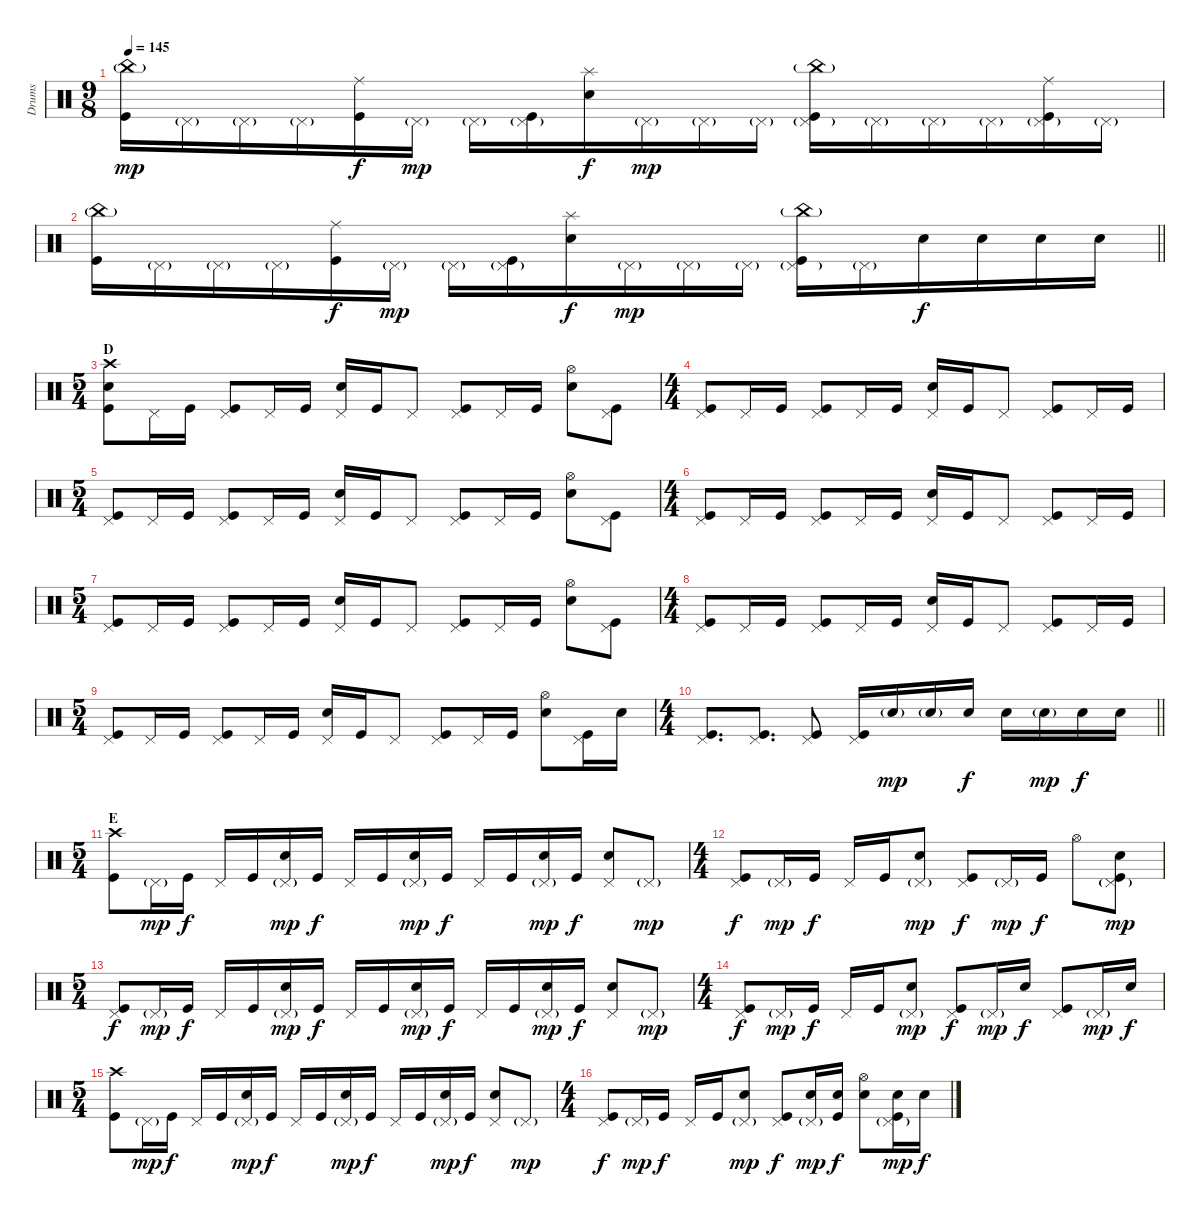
\track ("Drums" "Drums") {instrument percussion}
\staff {score}
\articulation defaults
\ts (9 8)
\tempo 145
\clef neutral
\ks c
("China (hit)"{g} "Kick (hit)").16{dy mp} "Pedal Hi-Hat (hit)"{g}.16 "Pedal Hi-Hat (hit)"{g}.16 "Pedal Hi-Hat (hit)"{g}.16 ("Ride (middle)" "Kick (hit)").16{dy f} "Pedal Hi-Hat (hit)"{g}.16{dy mp} "Pedal Hi-Hat (hit)"{g}.16 ("Pedal Hi-Hat (hit)"{g} "Kick (hit)").16 ("Splash (hit)" "Electric Snare (hit)").16{dy f} "Pedal Hi-Hat (hit)"{g}.16{dy mp} "Pedal Hi-Hat (hit)"{g}.16 "Pedal Hi-Hat (hit)"{g}.16 ("China (hit)"{g} "Pedal Hi-Hat (hit)"{g} "Kick (hit)").16 "Pedal Hi-Hat (hit)"{g}.16 "Pedal Hi-Hat (hit)"{g}.16 "Pedal Hi-Hat (hit)"{g}.16 ("Ride (middle)" "Pedal Hi-Hat (hit)"{g} "Kick (hit)").16 "Pedal Hi-Hat (hit)"{g}.16 |
\barLineRight lightlight
("China (hit)"{g} "Kick (hit)").16 "Pedal Hi-Hat (hit)"{g}.16 "Pedal Hi-Hat (hit)"{g}.16 "Pedal Hi-Hat (hit)"{g}.16 ("Ride (middle)" "Kick (hit)").16{dy f} "Pedal Hi-Hat (hit)"{g}.16{dy mp} "Pedal Hi-Hat (hit)"{g}.16 ("Pedal Hi-Hat (hit)"{g} "Kick (hit)").16 ("Splash (hit)" "Electric Snare (hit)").16{dy f} "Pedal Hi-Hat (hit)"{g}.16{dy mp} "Pedal Hi-Hat (hit)"{g}.16 "Pedal Hi-Hat (hit)"{g}.16 ("China (hit)"{g} "Pedal Hi-Hat (hit)"{g} "Kick (hit)").16 "Pedal Hi-Hat (hit)"{g}.16 "Electric Snare (hit)".16{dy f} "Electric Snare (hit)".16 "Electric Snare (hit)".16 "Electric Snare (hit)".16 |
\ts (5 4)
\section ("" "D")
("Crash high (hit)" "Electric Snare (hit)" "Kick (hit)").8 "Pedal Hi-Hat (hit)".16 "Kick (hit)".16 ("Pedal Hi-Hat (hit)" "Kick (hit)").8 "Pedal Hi-Hat (hit)".16 "Kick (hit)".16 ("Pedal Hi-Hat (hit)" "Electric Snare (hit)").16 "Kick (hit)".16 "Pedal Hi-Hat (hit)".8 ("Pedal Hi-Hat (hit)" "Kick (hit)").8 "Pedal Hi-Hat (hit)".16 "Kick (hit)".16 ("Hi-Hat (open)" "Electric Snare (hit)").8 ("Pedal Hi-Hat (hit)" "Kick (hit)").8 |
\ts (4 4)
("Pedal Hi-Hat (hit)" "Kick (hit)").8 "Pedal Hi-Hat (hit)".16 "Kick (hit)".16 ("Pedal Hi-Hat (hit)" "Kick (hit)").8 "Pedal Hi-Hat (hit)".16 "Kick (hit)".16 ("Pedal Hi-Hat (hit)" "Electric Snare (hit)").16 "Kick (hit)".16 "Pedal Hi-Hat (hit)".8 ("Pedal Hi-Hat (hit)" "Kick (hit)").8 "Pedal Hi-Hat (hit)".16 "Kick (hit)".16 |
\ts (5 4)
("Pedal Hi-Hat (hit)" "Kick (hit)").8 "Pedal Hi-Hat (hit)".16 "Kick (hit)".16 ("Pedal Hi-Hat (hit)" "Kick (hit)").8 "Pedal Hi-Hat (hit)".16 "Kick (hit)".16 ("Pedal Hi-Hat (hit)" "Electric Snare (hit)").16 "Kick (hit)".16 "Pedal Hi-Hat (hit)".8 ("Pedal Hi-Hat (hit)" "Kick (hit)").8 "Pedal Hi-Hat (hit)".16 "Kick (hit)".16 ("Hi-Hat (open)" "Electric Snare (hit)").8 ("Pedal Hi-Hat (hit)" "Kick (hit)").8 |
\ts (4 4)
("Pedal Hi-Hat (hit)" "Kick (hit)").8 "Pedal Hi-Hat (hit)".16 "Kick (hit)".16 ("Pedal Hi-Hat (hit)" "Kick (hit)").8 "Pedal Hi-Hat (hit)".16 "Kick (hit)".16 ("Pedal Hi-Hat (hit)" "Electric Snare (hit)").16 "Kick (hit)".16 "Pedal Hi-Hat (hit)".8 ("Pedal Hi-Hat (hit)" "Kick (hit)").8 "Pedal Hi-Hat (hit)".16 "Kick (hit)".16 |
\ts (5 4)
("Pedal Hi-Hat (hit)" "Kick (hit)").8 "Pedal Hi-Hat (hit)".16 "Kick (hit)".16 ("Pedal Hi-Hat (hit)" "Kick (hit)").8 "Pedal Hi-Hat (hit)".16 "Kick (hit)".16 ("Pedal Hi-Hat (hit)" "Electric Snare (hit)").16 "Kick (hit)".16 "Pedal Hi-Hat (hit)".8 ("Pedal Hi-Hat (hit)" "Kick (hit)").8 "Pedal Hi-Hat (hit)".16 "Kick (hit)".16 ("Hi-Hat (open)" "Electric Snare (hit)").8 ("Pedal Hi-Hat (hit)" "Kick (hit)").8 |
\ts (4 4)
("Pedal Hi-Hat (hit)" "Kick (hit)").8 "Pedal Hi-Hat (hit)".16 "Kick (hit)".16 ("Pedal Hi-Hat (hit)" "Kick (hit)").8 "Pedal Hi-Hat (hit)".16 "Kick (hit)".16 ("Pedal Hi-Hat (hit)" "Electric Snare (hit)").16 "Kick (hit)".16 "Pedal Hi-Hat (hit)".8 ("Pedal Hi-Hat (hit)" "Kick (hit)").8 "Pedal Hi-Hat (hit)".16 "Kick (hit)".16 |
\ts (5 4)
("Pedal Hi-Hat (hit)" "Kick (hit)").8 "Pedal Hi-Hat (hit)".16 "Kick (hit)".16 ("Pedal Hi-Hat (hit)" "Kick (hit)").8 "Pedal Hi-Hat (hit)".16 "Kick (hit)".16 ("Pedal Hi-Hat (hit)" "Electric Snare (hit)").16 "Kick (hit)".16 "Pedal Hi-Hat (hit)".8 ("Pedal Hi-Hat (hit)" "Kick (hit)").8 "Pedal Hi-Hat (hit)".16 "Kick (hit)".16 ("Hi-Hat (open)" "Electric Snare (hit)").8 ("Pedal Hi-Hat (hit)" "Kick (hit)").16 "Electric Snare (hit)".16 |
\ts (4 4)
\barLineRight lightlight
("Pedal Hi-Hat (hit)" "Kick (hit)").8{d} ("Pedal Hi-Hat (hit)" "Kick (hit)").8{d} ("Pedal Hi-Hat (hit)" "Kick (hit)").8 ("Pedal Hi-Hat (hit)" "Kick (hit)").16 "Electric Snare (hit)"{g}.16{dy mp} "Electric Snare (hit)"{g}.16 "Electric Snare (hit)".16{dy f} "Electric Snare (hit)".16 "Electric Snare (hit)"{g}.16{dy mp} "Electric Snare (hit)".16{dy f} "Electric Snare (hit)".16 |
\ts (5 4)
\section ("" "E")
("Crash high (hit)" "Kick (hit)").8 "Pedal Hi-Hat (hit)"{g}.16{dy mp} "Kick (hit)".16{dy f} "Pedal Hi-Hat (hit)".16 "Kick (hit)".16 ("Pedal Hi-Hat (hit)"{g} "Electric Snare (hit)").16{dy mp} "Kick (hit)".16{dy f} "Pedal Hi-Hat (hit)".16 "Kick (hit)".16 ("Pedal Hi-Hat (hit)"{g} "Electric Snare (hit)").16{dy mp} "Kick (hit)".16{dy f} "Pedal Hi-Hat (hit)".16 "Kick (hit)".16 ("Pedal Hi-Hat (hit)"{g} "Electric Snare (hit)").16{dy mp} "Kick (hit)".16{dy f} ("Pedal Hi-Hat (hit)" "Electric Snare (hit)").8 "Pedal Hi-Hat (hit)"{g}.8{dy mp} |
\ts (4 4)
("Pedal Hi-Hat (hit)" "Kick (hit)").8{dy f} "Pedal Hi-Hat (hit)"{g}.16{dy mp} "Kick (hit)".16{dy f} "Pedal Hi-Hat (hit)".16 "Kick (hit)".16 ("Pedal Hi-Hat (hit)"{g} "Electric Snare (hit)").8{dy mp} ("Pedal Hi-Hat (hit)" "Kick (hit)").8{dy f} "Pedal Hi-Hat (hit)"{g}.16{dy mp} "Kick (hit)".16{dy f} "Hi-Hat (open)".8 ("Pedal Hi-Hat (hit)"{g} "Electric Snare (hit)" "Kick (hit)").8{dy mp} |
\ts (5 4)
("Pedal Hi-Hat (hit)" "Kick (hit)").8{dy f} "Pedal Hi-Hat (hit)"{g}.16{dy mp} "Kick (hit)".16{dy f} "Pedal Hi-Hat (hit)".16 "Kick (hit)".16 ("Pedal Hi-Hat (hit)"{g} "Electric Snare (hit)").16{dy mp} "Kick (hit)".16{dy f} "Pedal Hi-Hat (hit)".16 "Kick (hit)".16 ("Pedal Hi-Hat (hit)"{g} "Electric Snare (hit)").16{dy mp} "Kick (hit)".16{dy f} "Pedal Hi-Hat (hit)".16 "Kick (hit)".16 ("Pedal Hi-Hat (hit)"{g} "Electric Snare (hit)").16{dy mp} "Kick (hit)".16{dy f} ("Pedal Hi-Hat (hit)" "Electric Snare (hit)").8 "Pedal Hi-Hat (hit)"{g}.8{dy mp} |
\ts (4 4)
("Pedal Hi-Hat (hit)" "Kick (hit)").8{dy f} "Pedal Hi-Hat (hit)"{g}.16{dy mp} "Kick (hit)".16{dy f} "Pedal Hi-Hat (hit)".16 "Kick (hit)".16 ("Pedal Hi-Hat (hit)"{g} "Electric Snare (hit)").8{dy mp} ("Pedal Hi-Hat (hit)" "Kick (hit)").8{dy f} "Pedal Hi-Hat (hit)"{g}.16{dy mp} "Electric Snare (hit)".16{dy f} ("Pedal Hi-Hat (hit)" "Kick (hit)").8 "Pedal Hi-Hat (hit)"{g}.16{dy mp} "Electric Snare (hit)".16{dy f} |
\ts (5 4)
("Crash high (hit)" "Kick (hit)").8 "Pedal Hi-Hat (hit)"{g}.16{dy mp} "Kick (hit)".16{dy f} "Pedal Hi-Hat (hit)".16 "Kick (hit)".16 ("Pedal Hi-Hat (hit)"{g} "Electric Snare (hit)").16{dy mp} "Kick (hit)".16{dy f} "Pedal Hi-Hat (hit)".16 "Kick (hit)".16 ("Pedal Hi-Hat (hit)"{g} "Electric Snare (hit)").16{dy mp} "Kick (hit)".16{dy f} "Pedal Hi-Hat (hit)".16 "Kick (hit)".16 ("Pedal Hi-Hat (hit)"{g} "Electric Snare (hit)").16{dy mp} "Kick (hit)".16{dy f} ("Pedal Hi-Hat (hit)" "Electric Snare (hit)").8 "Pedal Hi-Hat (hit)"{g}.8{dy mp} |
\ts (4 4)
("Pedal Hi-Hat (hit)" "Kick (hit)").8{dy f} "Pedal Hi-Hat (hit)"{g}.16{dy mp} "Kick (hit)".16{dy f} "Pedal Hi-Hat (hit)".16 "Kick (hit)".16 ("Pedal Hi-Hat (hit)"{g} "Electric Snare (hit)").8{dy mp} ("Pedal Hi-Hat (hit)" "Kick (hit)").8{dy f} ("Pedal Hi-Hat (hit)"{g} "Electric Snare (hit)").16{dy mp} ("Electric Snare (hit)" "Kick (hit)").16{dy f} ("Hi-Hat (open)" "Electric Snare (hit)").8 ("Pedal Hi-Hat (hit)"{g} "Electric Snare (hit)" "Kick (hit)").16{dy mp} "Electric Snare (hit)".16{dy f}
